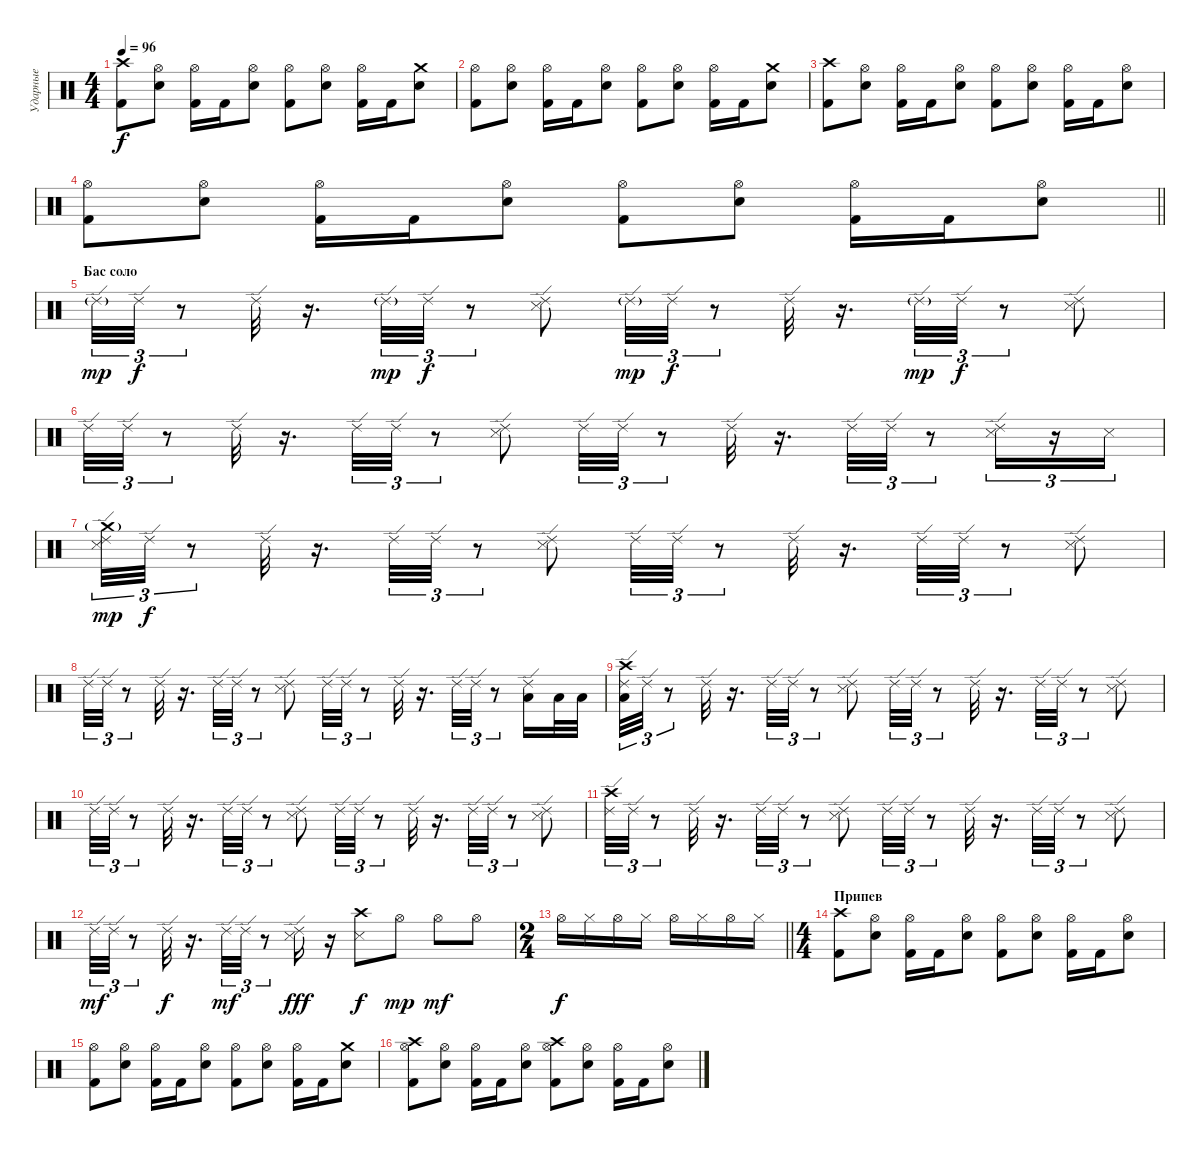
\track ("Ударные" "Ударные") {instrument percussion}
\staff {score}
\articulation defaults
\ts (4 4)
\tempo 96
\clef neutral
\ks c
("Crash high (hit)" "Kick (hit) 2").8{dy f} ("Hi-Hat (open)" "Electric Snare (hit)").8 ("Hi-Hat (open)" "Kick (hit) 2").16 "Kick (hit) 2".16 ("Hi-Hat (open)" "Electric Snare (hit)").8 ("Hi-Hat (open)" "Kick (hit) 2").8 ("Hi-Hat (open)" "Electric Snare (hit)").8 ("Hi-Hat (open)" "Kick (hit) 2").16 "Kick (hit) 2".16 ("Crash medium (hit)" "Electric Snare (hit)").8 |
("Hi-Hat (open)" "Kick (hit) 2").8 ("Hi-Hat (open)" "Electric Snare (hit)").8 ("Hi-Hat (open)" "Kick (hit) 2").16 "Kick (hit) 2".16 ("Hi-Hat (open)" "Electric Snare (hit)").8 ("Hi-Hat (open)" "Kick (hit) 2").8 ("Hi-Hat (open)" "Electric Snare (hit)").8 ("Hi-Hat (open)" "Kick (hit) 2").16 "Kick (hit) 2".16 ("Crash medium (hit)" "Electric Snare (hit)").8 |
("Crash high (hit)" "Kick (hit) 2").8 ("Hi-Hat (open)" "Electric Snare (hit)").8 ("Hi-Hat (open)" "Kick (hit) 2").16 "Kick (hit) 2".16 ("Hi-Hat (open)" "Electric Snare (hit)").8 ("Hi-Hat (open)" "Kick (hit) 2").8 ("Hi-Hat (open)" "Electric Snare (hit)").8 ("Hi-Hat (open)" "Kick (hit) 2").16 "Kick (hit) 2".16 ("Hi-Hat (open)" "Electric Snare (hit)").8 |
\barLineRight lightlight
("Hi-Hat (open)" "Kick (hit) 2").8 ("Hi-Hat (open)" "Electric Snare (hit)").8 ("Hi-Hat (open)" "Kick (hit) 2").16 "Kick (hit) 2".16 ("Hi-Hat (open)" "Electric Snare (hit)").8 ("Hi-Hat (open)" "Kick (hit) 2").8 ("Hi-Hat (open)" "Electric Snare (hit)").8 ("Hi-Hat (open)" "Kick (hit) 2").16 "Kick (hit) 2".16 ("Hi-Hat (open)" "Electric Snare (hit)").8 |
\section ("" "Бас соло")
"Ride (edge) 2"{g}.32{tu (3 2) dy mp} "Ride (edge) 2".32{tu (3 2) dy f} r.8{tu (3 2)} "Ride (edge) 2".32 r.16{d} "Ride (edge) 2"{g}.32{tu (3 2) dy mp} "Ride (edge) 2".32{tu (3 2) dy f} r.8{tu (3 2)} ("Ride (edge) 2" "Snare (side stick) 3").8 "Ride (edge) 2"{g}.32{tu (3 2) dy mp} "Ride (edge) 2".32{tu (3 2) dy f} r.8{tu (3 2)} "Ride (edge) 2".32 r.16{d} "Ride (edge) 2"{g}.32{tu (3 2) dy mp} "Ride (edge) 2".32{tu (3 2) dy f} r.8{tu (3 2)} ("Ride (edge) 2" "Snare (side stick) 3").8 |
"Ride (edge) 2".32{tu (3 2)} "Ride (edge) 2".32{tu (3 2)} r.8{tu (3 2)} "Ride (edge) 2".32 r.16{d} "Ride (edge) 2".32{tu (3 2)} "Ride (edge) 2".32{tu (3 2)} r.8{tu (3 2)} ("Ride (edge) 2" "Snare (side stick) 3").8 "Ride (edge) 2".32{tu (3 2)} "Ride (edge) 2".32{tu (3 2)} r.8{tu (3 2)} "Ride (edge) 2".32 r.16{d} "Ride (edge) 2".32{tu (3 2)} "Ride (edge) 2".32{tu (3 2)} r.8{tu (3 2)} ("Ride (edge) 2" "Snare (side stick) 3").16{tu (3 2)} r.16{tu (3 2)} "Metronome (hit)".16{tu (3 2)} |
("Ride (edge) 2" "Metronome (hit)" "Crash medium (hit)"{g}).32{tu (3 2) dy mp} "Ride (edge) 2".32{tu (3 2) dy f} r.8{tu (3 2)} "Ride (edge) 2".32 r.16{d} "Ride (edge) 2".32{tu (3 2)} "Ride (edge) 2".32{tu (3 2)} r.8{tu (3 2)} ("Ride (edge) 2" "Snare (side stick) 3").8 "Ride (edge) 2".32{tu (3 2)} "Ride (edge) 2".32{tu (3 2)} r.8{tu (3 2)} "Ride (edge) 2".32 r.16{d} "Ride (edge) 2".32{tu (3 2)} "Ride (edge) 2".32{tu (3 2)} r.8{tu (3 2)} ("Ride (edge) 2" "Snare (side stick) 3").8 |
"Ride (edge) 2".32{tu (3 2)} "Ride (edge) 2".32{tu (3 2)} r.8{tu (3 2)} "Ride (edge) 2".32 r.16{d} "Ride (edge) 2".32{tu (3 2)} "Ride (edge) 2".32{tu (3 2)} r.8{tu (3 2)} ("Ride (edge) 2" "Snare (side stick) 3").8 "Ride (edge) 2".32{tu (3 2)} "Ride (edge) 2".32{tu (3 2)} r.8{tu (3 2)} "Ride (edge) 2".32 r.16{d} "Ride (edge) 2".32{tu (3 2)} "Ride (edge) 2".32{tu (3 2)} r.8{tu (3 2)} ("Ride (edge) 2" "Low Tom (hit)").16 "Low Tom (hit)".32 "Low Tom (hit)".32 |
("Ride (edge) 2" "Low Floor Tom (hit)" "Crash high (hit)").32{tu (3 2)} "Ride (edge) 2".32{tu (3 2)} r.8{tu (3 2)} "Ride (edge) 2".32 r.16{d} "Ride (edge) 2".32{tu (3 2)} "Ride (edge) 2".32{tu (3 2)} r.8{tu (3 2)} ("Ride (edge) 2" "Snare (side stick) 3").8 "Ride (edge) 2".32{tu (3 2)} "Ride (edge) 2".32{tu (3 2)} r.8{tu (3 2)} "Ride (edge) 2".32 r.16{d} "Ride (edge) 2".32{tu (3 2)} "Ride (edge) 2".32{tu (3 2)} r.8{tu (3 2)} ("Ride (edge) 2" "Snare (side stick) 3").8 |
"Ride (edge) 2".32{tu (3 2)} "Ride (edge) 2".32{tu (3 2)} r.8{tu (3 2)} "Ride (edge) 2".32 r.16{d} "Ride (edge) 2".32{tu (3 2)} "Ride (edge) 2".32{tu (3 2)} r.8{tu (3 2)} ("Ride (edge) 2" "Snare (side stick) 3").8 "Ride (edge) 2".32{tu (3 2)} "Ride (edge) 2".32{tu (3 2)} r.8{tu (3 2)} "Ride (edge) 2".32 r.16{d} "Ride (edge) 2".32{tu (3 2)} "Ride (edge) 2".32{tu (3 2)} r.8{tu (3 2)} ("Ride (edge) 2" "Snare (side stick) 3").8 |
("Ride (edge) 2" "Crash high (hit)").32{tu (3 2)} "Ride (edge) 2".32{tu (3 2)} r.8{tu (3 2)} "Ride (edge) 2".32 r.16{d} "Ride (edge) 2".32{tu (3 2)} "Ride (edge) 2".32{tu (3 2)} r.8{tu (3 2)} ("Ride (edge) 2" "Snare (side stick) 3").8 "Ride (edge) 2".32{tu (3 2)} "Ride (edge) 2".32{tu (3 2)} r.8{tu (3 2)} "Ride (edge) 2".32 r.16{d} "Ride (edge) 2".32{tu (3 2)} "Ride (edge) 2".32{tu (3 2)} r.8{tu (3 2)} ("Ride (edge) 2" "Snare (side stick) 3").8 |
"Ride (edge) 2".32{tu (3 2) dy mf} "Ride (edge) 2".32{tu (3 2)} r.8{tu (3 2)} "Ride (edge) 2".32{dy f} r.16{d} "Ride (edge) 2".32{tu (3 2) dy mf} "Ride (edge) 2".32{tu (3 2)} r.8{tu (3 2)} ("Snare (side stick) 3" "Ride (edge) 2").16{dy fff} r.16 ("Metronome (hit)" "Crash high (hit)").8{dy f} "Hi-Hat (open)".8{dy mp} "Hi-Hat (open)".8{dy mf} "Hi-Hat (open)".8 |
\ts (2 4)
\barLineRight lightlight "Hi-Hat (open)".16{dy f} "Hi-Hat (closed)".16 "Hi-Hat (open)".16 "Hi-Hat (closed)".16 "Hi-Hat (open)".16 "Hi-Hat (closed)".16 "Hi-Hat (open)".16 "Hi-Hat (closed)".16
|
\ts (4 4)
\section ("" "Припев")
("Crash high (hit)" "Kick (hit) 2").8 ("Hi-Hat (open)" "Electric Snare (hit)").8 ("Hi-Hat (open)" "Kick (hit) 2").16 "Kick (hit) 2".16 ("Hi-Hat (open)" "Electric Snare (hit)").8 ("Hi-Hat (open)" "Kick (hit) 2").8 ("Hi-Hat (open)" "Electric Snare (hit)").8 ("Hi-Hat (open)" "Kick (hit) 2").16 "Kick (hit) 2".16 ("Hi-Hat (open)" "Electric Snare (hit)").8 |
("Hi-Hat (open)" "Kick (hit) 2").8 ("Hi-Hat (open)" "Electric Snare (hit)").8 ("Hi-Hat (open)" "Kick (hit) 2").16 "Kick (hit) 2".16 ("Hi-Hat (open)" "Electric Snare (hit)").8 ("Hi-Hat (open)" "Kick (hit) 2").8 ("Hi-Hat (open)" "Electric Snare (hit)").8 ("Hi-Hat (open)" "Kick (hit) 2").16 "Kick (hit) 2".16 ("Crash medium (hit)" "Electric Snare (hit)").8 |
("Hi-Hat (open)" "Crash high (hit)" "Kick (hit) 2").8 ("Hi-Hat (open)" "Electric Snare (hit)").8 ("Hi-Hat (open)" "Kick (hit) 2").16 "Kick (hit) 2".16 ("Hi-Hat (open)" "Electric Snare (hit)").8 ("Hi-Hat (open)" "Crash high (hit)" "Kick (hit) 2").8 ("Hi-Hat (open)" "Electric Snare (hit)").8 ("Hi-Hat (open)" "Kick (hit) 2").16 "Kick (hit) 2".16 ("Hi-Hat (open)" "Electric Snare (hit)").8
